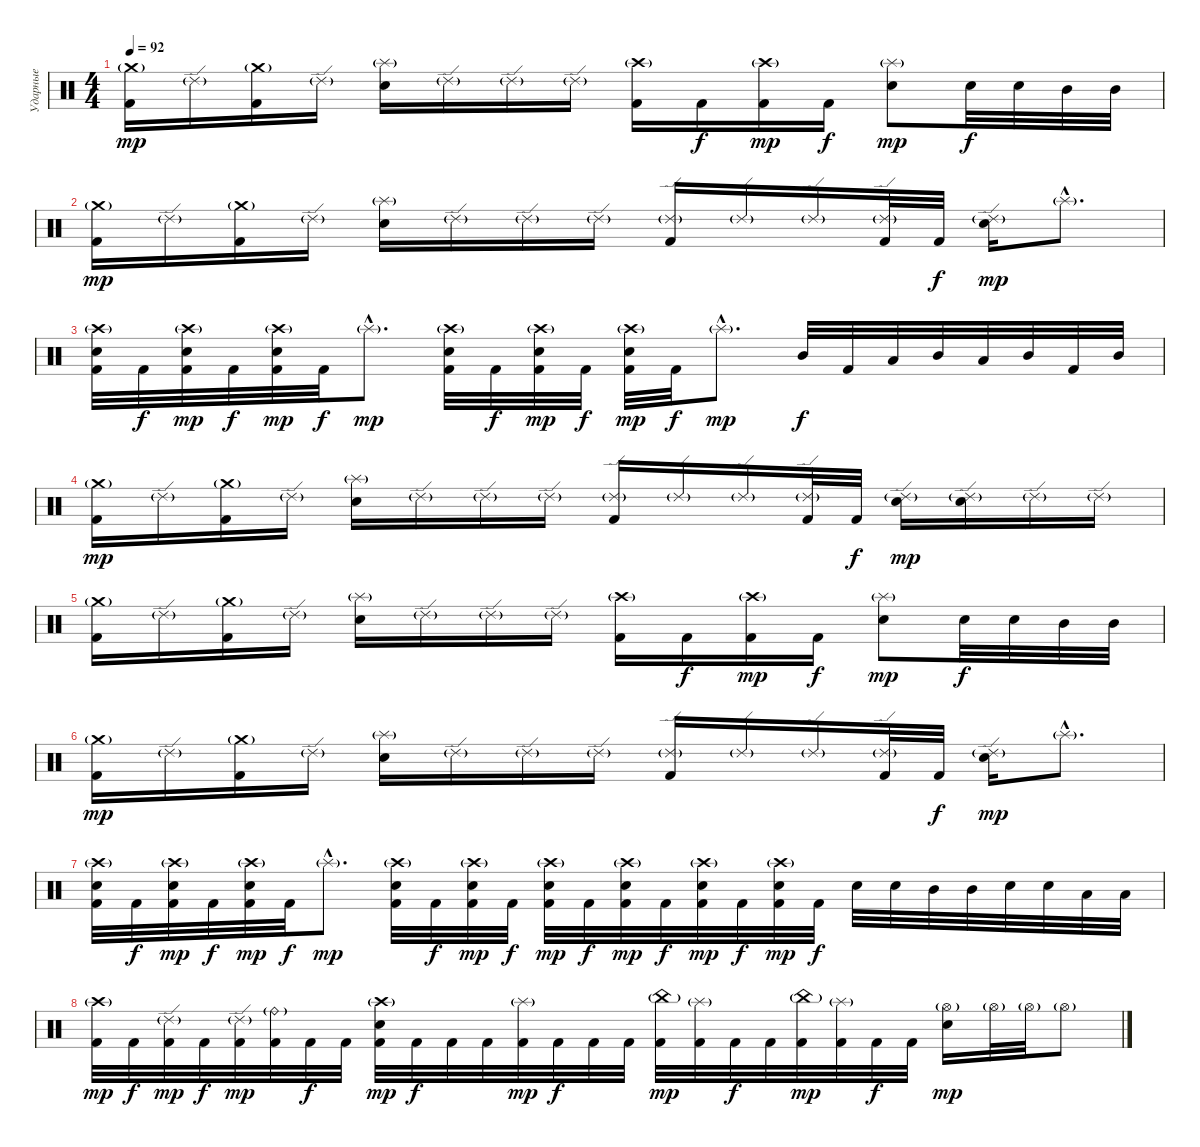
\track ("Ударные" "Ударные") {instrument percussion}
\staff {score}
\articulation defaults
\ts (4 4)
\tempo 92
\clef neutral
\ks c
("Crash medium (hit)"{g} "Kick (hit) 2").16{dy mp} "Ride (edge) 2"{g}.16 ("Crash medium (hit)"{g} "Kick (hit) 2").16 "Ride (edge) 2"{g}.16 ("Splash (hit)"{g} "Electric Snare (hit)").16 "Ride (edge) 2"{g}.16 "Ride (edge) 2"{g}.16 "Ride (edge) 2"{g}.16 ("Crash high (hit)"{g} "Kick (hit) 2").16 "Kick (hit) 2".16{dy f} ("Crash high (hit)"{g} "Kick (hit) 2").16{dy mp} "Kick (hit) 2".16{dy f} ("Splash (hit)"{g} "Electric Snare (hit)").8{dy mp} "Electric Snare (hit)".32{dy f} "Electric Snare (hit)".32 "Mid Tom (hit)".32 "Mid Tom (hit)".32 |
("Crash medium (hit)"{g} "Kick (hit) 2").16{dy mp} "Ride (edge) 2"{g}.16 ("Crash medium (hit)"{g} "Kick (hit) 2").16 "Ride (edge) 2"{g}.16 ("Splash (hit)"{g} "Electric Snare (hit)").16 "Ride (edge) 2"{g}.16 "Ride (edge) 2"{g}.16 "Ride (edge) 2"{g}.16 ("Ride (edge) 2"{g} "Kick (hit) 2").16 "Ride (edge) 2"{g}.16 "Ride (edge) 2"{g}.16 ("Ride (edge) 2"{g} "Kick (hit) 2").32 "Kick (hit) 2".32{dy f} ("Ride (edge) 2"{g} "Electric Snare (hit)").16{dy mp} "Splash (hit)"{g hac}.8{d} |
("Crash high (hit)"{g} "Electric Snare (hit)" "Kick (hit) 2").32 "Kick (hit) 2".32{dy f} ("Crash high (hit)"{g} "Electric Snare (hit)" "Kick (hit) 2").32{dy mp} "Kick (hit) 2".32{dy f} ("Crash high (hit)"{g} "Electric Snare (hit)" "Kick (hit) 2").32{dy mp} "Kick (hit) 2".32{dy f} "Splash (hit)"{g hac}.8{d dy mp} ("Crash high (hit)"{g} "Electric Snare (hit)" "Kick (hit) 2").32 "Kick (hit) 2".32{dy f} ("Crash high (hit)"{g} "Electric Snare (hit)" "Kick (hit) 2").32{dy mp} "Kick (hit) 2".32{dy f} ("Crash high (hit)"{g} "Electric Snare (hit)" "Kick (hit) 2").32{dy mp} "Kick (hit) 2".32{dy f} "Splash (hit)"{g hac}.8{d dy mp} "Mid Tom (hit)".32{dy f} "Kick (hit) 2".32 "Low Tom (hit)".32 "Mid Tom (hit)".32 "Low Tom (hit)".32 "Mid Tom (hit)".32 "Kick (hit) 2".32 "Mid Tom (hit)".32 |
("Crash medium (hit)"{g} "Kick (hit) 2").16{dy mp} "Ride (edge) 2"{g}.16 ("Crash medium (hit)"{g} "Kick (hit) 2").16 "Ride (edge) 2"{g}.16 ("Splash (hit)"{g} "Electric Snare (hit)").16 "Ride (edge) 2"{g}.16 "Ride (edge) 2"{g}.16 "Ride (edge) 2"{g}.16 ("Ride (edge) 2"{g} "Kick (hit) 2").16 "Ride (edge) 2"{g}.16 "Ride (edge) 2"{g}.16 ("Ride (edge) 2"{g} "Kick (hit) 2").32 "Kick (hit) 2".32{dy f} ("Ride (edge) 2"{g} "Electric Snare (hit)").16{dy mp} ("Ride (edge) 2"{g} "Electric Snare (hit)").16 "Ride (edge) 2"{g}.16 "Ride (edge) 2"{g}.16 |
("Crash medium (hit)"{g} "Kick (hit) 2").16 "Ride (edge) 2"{g}.16 ("Crash medium (hit)"{g} "Kick (hit) 2").16 "Ride (edge) 2"{g}.16 ("Splash (hit)"{g} "Electric Snare (hit)").16 "Ride (edge) 2"{g}.16 "Ride (edge) 2"{g}.16 "Ride (edge) 2"{g}.16 ("Crash high (hit)"{g} "Kick (hit) 2").16 "Kick (hit) 2".16{dy f} ("Crash high (hit)"{g} "Kick (hit) 2").16{dy mp} "Kick (hit) 2".16{dy f} ("Splash (hit)"{g} "Electric Snare (hit)").8{dy mp} "Electric Snare (hit)".32{dy f} "Electric Snare (hit)".32 "Mid Tom (hit)".32 "Mid Tom (hit)".32 |
("Crash medium (hit)"{g} "Kick (hit) 2").16{dy mp} "Ride (edge) 2"{g}.16 ("Crash medium (hit)"{g} "Kick (hit) 2").16 "Ride (edge) 2"{g}.16 ("Splash (hit)"{g} "Electric Snare (hit)").16 "Ride (edge) 2"{g}.16 "Ride (edge) 2"{g}.16 "Ride (edge) 2"{g}.16 ("Ride (edge) 2"{g} "Kick (hit) 2").16 "Ride (edge) 2"{g}.16 "Ride (edge) 2"{g}.16 ("Ride (edge) 2"{g} "Kick (hit) 2").32 "Kick (hit) 2".32{dy f} ("Ride (edge) 2"{g} "Electric Snare (hit)").16{dy mp} "Splash (hit)"{g hac}.8{d} |
("Crash high (hit)"{g} "Electric Snare (hit)" "Kick (hit) 2").32 "Kick (hit) 2".32{dy f} ("Crash high (hit)"{g} "Electric Snare (hit)" "Kick (hit) 2").32{dy mp} "Kick (hit) 2".32{dy f} ("Crash high (hit)"{g} "Electric Snare (hit)" "Kick (hit) 2").32{dy mp} "Kick (hit) 2".32{dy f} "Splash (hit)"{g hac}.8{d dy mp} ("Crash high (hit)"{g} "Electric Snare (hit)" "Kick (hit) 2").32 "Kick (hit) 2".32{dy f} ("Crash high (hit)"{g} "Electric Snare (hit)" "Kick (hit) 2").32{dy mp} "Kick (hit) 2".32{dy f} ("Crash high (hit)"{g} "Electric Snare (hit)" "Kick (hit) 2").32{dy mp} "Kick (hit) 2".32{dy f} ("Crash high (hit)"{g} "Electric Snare (hit)" "Kick (hit) 2").32{dy mp} "Kick (hit) 2".32{dy f} ("Crash high (hit)"{g} "Electric Snare (hit)" "Kick (hit) 2").32{dy mp} "Kick (hit) 2".32{dy f} ("Crash high (hit)"{g} "Electric Snare (hit)" "Kick (hit) 2").32{dy mp} "Kick (hit) 2".32{dy f} "Electric Snare (hit)".32 "Electric Snare (hit)".32 "Mid Tom (hit)".32 "Mid Tom (hit)".32 "Electric Snare (hit)".32 "Electric Snare (hit)".32 "Low Tom (hit)".32 "Low Tom (hit)".32 |
("Crash high (hit)"{g} "Kick (hit) 2").32{dy mp} "Kick (hit) 2".32{dy f} ("Ride (edge) 2"{g} "Kick (hit) 2").32{dy mp} "Kick (hit) 2".32{dy f} ("Ride (edge) 2"{g} "Kick (hit) 2").32{dy mp} ("Ride (bell)"{g} "Kick (hit) 2").32 "Kick (hit) 2".32{dy f} "Kick (hit) 2".32 ("Crash high (hit)"{g} "Electric Snare (hit)" "Kick (hit) 2").32{dy mp} "Kick (hit) 2".32{dy f} "Kick (hit) 2".32 "Kick (hit) 2".32 ("Splash (hit)"{g} "Kick (hit) 2").32{dy mp} "Kick (hit) 2".32{dy f} "Kick (hit) 2".32 "Kick (hit) 2".32 ("China (hit)"{g} "Kick (hit) 2").32{dy mp} ("Splash (hit)"{g} "Kick (hit) 2").32 "Kick (hit) 2".32{dy f} "Kick (hit) 2".32 ("China (hit)"{g} "Kick (hit) 2").32{dy mp} ("Splash (hit)"{g} "Kick (hit) 2").32 "Kick (hit) 2".32{dy f} "Kick (hit) 2".32 ("Hi-Hat (open)"{g} "Electric Snare (hit)").16{dy mp} "Hi-Hat (open)"{g}.32 "Hi-Hat (open)"{g}.32 "Hi-Hat (open)"{g}.8
